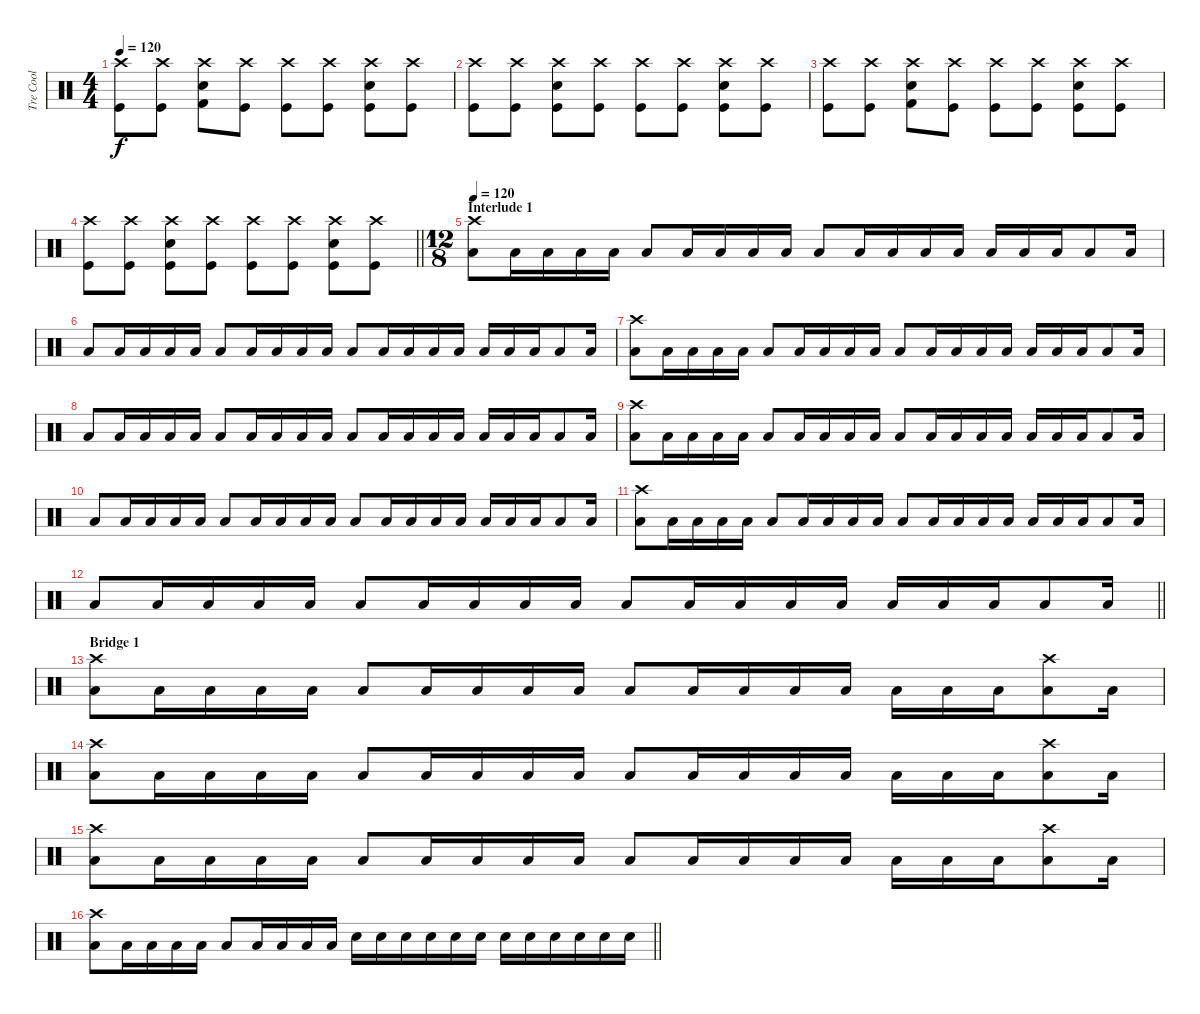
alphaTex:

\track ("Tre Cool" "Tre Cool") {instrument percussion}
\staff {score}
\articulation defaults
\ts (4 4)
\tempo 120
\clef neutral
\ks c
("Crash high (hit)" "Kick (hit)").8{dy f} ("Crash high (hit)" "Kick (hit)").8 ("Crash high (hit)" "Snare (hit) 2" "Kick (hit) 2").8 ("Crash high (hit)" "Kick (hit)").8 ("Crash high (hit)" "Kick (hit)").8 ("Crash high (hit)" "Kick (hit)").8 ("Crash high (hit)" "Snare (hit) 2" "Kick (hit)").8 ("Crash high (hit)" "Kick (hit)").8 |
("Crash high (hit)" "Kick (hit)").8 ("Crash high (hit)" "Kick (hit)").8 ("Crash high (hit)" "Snare (hit) 2" "Kick (hit)").8 ("Crash high (hit)" "Kick (hit)").8 ("Crash high (hit)" "Kick (hit)").8 ("Crash high (hit)" "Kick (hit)").8 ("Crash high (hit)" "Snare (hit) 2" "Kick (hit)").8 ("Crash high (hit)" "Kick (hit)").8 |
("Crash high (hit)" "Kick (hit)").8 ("Crash high (hit)" "Kick (hit)").8 ("Crash high (hit)" "Snare (hit) 2" "Kick (hit) 2").8 ("Crash high (hit)" "Kick (hit)").8 ("Crash high (hit)" "Kick (hit)").8 ("Crash high (hit)" "Kick (hit)").8 ("Crash high (hit)" "Snare (hit) 2" "Kick (hit)").8 ("Crash high (hit)" "Kick (hit)").8 |
\barLineRight lightlight
("Crash high (hit)" "Kick (hit)").8 ("Crash high (hit)" "Kick (hit)").8 ("Crash high (hit)" "Snare (hit) 2" "Kick (hit)").8 ("Crash high (hit)" "Kick (hit)").8 ("Crash high (hit)" "Kick (hit)").8 ("Crash high (hit)" "Kick (hit)").8 ("Crash high (hit)" "Snare (hit) 2" "Kick (hit)").8 ("Crash high (hit)" "Kick (hit)").8 |
\ts (12 8)
\section ("" "Interlude 1")
\tempo 120
("Low Tom (hit)" "Crash high (hit)").8 "Low Tom (hit)".16 "Low Tom (hit)".16 "Low Tom (hit)".16 "Low Tom (hit)".16 "Low Tom (hit)".8 "Low Tom (hit)".16 "Low Tom (hit)".16 "Low Tom (hit)".16 "Low Tom (hit)".16 "Low Tom (hit)".8 "Low Tom (hit)".16 "Low Tom (hit)".16 "Low Tom (hit)".16 "Low Tom (hit)".16 "Low Tom (hit)".16 "Low Tom (hit)".16 "Low Tom (hit)".16 "Low Tom (hit)".8 "Low Tom (hit)".16 |
"Low Tom (hit)".8 "Low Tom (hit)".16 "Low Tom (hit)".16 "Low Tom (hit)".16 "Low Tom (hit)".16 "Low Tom (hit)".8 "Low Tom (hit)".16 "Low Tom (hit)".16 "Low Tom (hit)".16 "Low Tom (hit)".16 "Low Tom (hit)".8 "Low Tom (hit)".16 "Low Tom (hit)".16 "Low Tom (hit)".16 "Low Tom (hit)".16 "Low Tom (hit)".16 "Low Tom (hit)".16 "Low Tom (hit)".16 "Low Tom (hit)".8 "Low Tom (hit)".16 |
("Low Tom (hit)" "Crash high (hit)").8 "Low Tom (hit)".16 "Low Tom (hit)".16 "Low Tom (hit)".16 "Low Tom (hit)".16 "Low Tom (hit)".8 "Low Tom (hit)".16 "Low Tom (hit)".16 "Low Tom (hit)".16 "Low Tom (hit)".16 "Low Tom (hit)".8 "Low Tom (hit)".16 "Low Tom (hit)".16 "Low Tom (hit)".16 "Low Tom (hit)".16 "Low Tom (hit)".16 "Low Tom (hit)".16 "Low Tom (hit)".16 "Low Tom (hit)".8 "Low Tom (hit)".16 |
"Low Tom (hit)".8 "Low Tom (hit)".16 "Low Tom (hit)".16 "Low Tom (hit)".16 "Low Tom (hit)".16 "Low Tom (hit)".8 "Low Tom (hit)".16 "Low Tom (hit)".16 "Low Tom (hit)".16 "Low Tom (hit)".16 "Low Tom (hit)".8 "Low Tom (hit)".16 "Low Tom (hit)".16 "Low Tom (hit)".16 "Low Tom (hit)".16 "Low Tom (hit)".16 "Low Tom (hit)".16 "Low Tom (hit)".16 "Low Tom (hit)".8 "Low Tom (hit)".16 |
("Low Tom (hit)" "Crash high (hit)").8 "Low Tom (hit)".16 "Low Tom (hit)".16 "Low Tom (hit)".16 "Low Tom (hit)".16 "Low Tom (hit)".8 "Low Tom (hit)".16 "Low Tom (hit)".16 "Low Tom (hit)".16 "Low Tom (hit)".16 "Low Tom (hit)".8 "Low Tom (hit)".16 "Low Tom (hit)".16 "Low Tom (hit)".16 "Low Tom (hit)".16 "Low Tom (hit)".16 "Low Tom (hit)".16 "Low Tom (hit)".16 "Low Tom (hit)".8 "Low Tom (hit)".16 |
"Low Tom (hit)".8 "Low Tom (hit)".16 "Low Tom (hit)".16 "Low Tom (hit)".16 "Low Tom (hit)".16 "Low Tom (hit)".8 "Low Tom (hit)".16 "Low Tom (hit)".16 "Low Tom (hit)".16 "Low Tom (hit)".16 "Low Tom (hit)".8 "Low Tom (hit)".16 "Low Tom (hit)".16 "Low Tom (hit)".16 "Low Tom (hit)".16 "Low Tom (hit)".16 "Low Tom (hit)".16 "Low Tom (hit)".16 "Low Tom (hit)".8 "Low Tom (hit)".16 |
("Low Tom (hit)" "Crash high (hit)").8 "Low Tom (hit)".16 "Low Tom (hit)".16 "Low Tom (hit)".16 "Low Tom (hit)".16 "Low Tom (hit)".8 "Low Tom (hit)".16 "Low Tom (hit)".16 "Low Tom (hit)".16 "Low Tom (hit)".16 "Low Tom (hit)".8 "Low Tom (hit)".16 "Low Tom (hit)".16 "Low Tom (hit)".16 "Low Tom (hit)".16 "Low Tom (hit)".16 "Low Tom (hit)".16 "Low Tom (hit)".16 "Low Tom (hit)".8 "Low Tom (hit)".16 |
\barLineRight lightlight "Low Tom (hit)".8 "Low Tom (hit)".16 "Low Tom (hit)".16 "Low Tom (hit)".16 "Low Tom (hit)".16 "Low Tom (hit)".8 "Low Tom (hit)".16 "Low Tom (hit)".16 "Low Tom (hit)".16 "Low Tom (hit)".16 "Low Tom (hit)".8 "Low Tom (hit)".16 "Low Tom (hit)".16 "Low Tom (hit)".16 "Low Tom (hit)".16 "Low Tom (hit)".16 "Low Tom (hit)".16 "Low Tom (hit)".16 "Low Tom (hit)".8 "Low Tom (hit)".16
|
\section ("" "Bridge 1")
("Low Tom (hit)" "Crash high (hit)").8 "Low Tom (hit)".16 "Low Tom (hit)".16 "Low Tom (hit)".16 "Low Tom (hit)".16 "Low Tom (hit)".8 "Low Tom (hit)".16 "Low Tom (hit)".16 "Low Tom (hit)".16 "Low Tom (hit)".16 "Low Tom (hit)".8 "Low Tom (hit)".16 "Low Tom (hit)".16 "Low Tom (hit)".16 "Low Tom (hit)".16 "Low Tom (hit)".16 "Low Tom (hit)".16 "Low Tom (hit)".16 ("Low Tom (hit)" "Crash high (hit)").8 "Low Tom (hit)".16 |
("Low Tom (hit)" "Crash high (hit)").8 "Low Tom (hit)".16 "Low Tom (hit)".16 "Low Tom (hit)".16 "Low Tom (hit)".16 "Low Tom (hit)".8 "Low Tom (hit)".16 "Low Tom (hit)".16 "Low Tom (hit)".16 "Low Tom (hit)".16 "Low Tom (hit)".8 "Low Tom (hit)".16 "Low Tom (hit)".16 "Low Tom (hit)".16 "Low Tom (hit)".16 "Low Tom (hit)".16 "Low Tom (hit)".16 "Low Tom (hit)".16 ("Low Tom (hit)" "Crash high (hit)").8 "Low Tom (hit)".16 |
("Low Tom (hit)" "Crash high (hit)").8 "Low Tom (hit)".16 "Low Tom (hit)".16 "Low Tom (hit)".16 "Low Tom (hit)".16 "Low Tom (hit)".8 "Low Tom (hit)".16 "Low Tom (hit)".16 "Low Tom (hit)".16 "Low Tom (hit)".16 "Low Tom (hit)".8 "Low Tom (hit)".16 "Low Tom (hit)".16 "Low Tom (hit)".16 "Low Tom (hit)".16 "Low Tom (hit)".16 "Low Tom (hit)".16 "Low Tom (hit)".16 ("Low Tom (hit)" "Crash high (hit)").8 "Low Tom (hit)".16 |
\barLineRight lightlight
("Low Tom (hit)" "Crash high (hit)").8 "Low Tom (hit)".16 "Low Tom (hit)".16 "Low Tom (hit)".16 "Low Tom (hit)".16 "Low Tom (hit)".8 "Low Tom (hit)".16 "Low Tom (hit)".16 "Low Tom (hit)".16 "Low Tom (hit)".16 "Snare (hit) 2".16 "Snare (hit) 2".16 "Snare (hit) 2".16 "Snare (hit) 2".16 "Snare (hit) 2".16 "Snare (hit) 2".16 "Snare (hit) 2".16 "Snare (hit) 2".16 "Snare (hit) 2".16 "Snare (hit) 2".16 "Snare (hit) 2".16 "Snare (hit) 2".16
